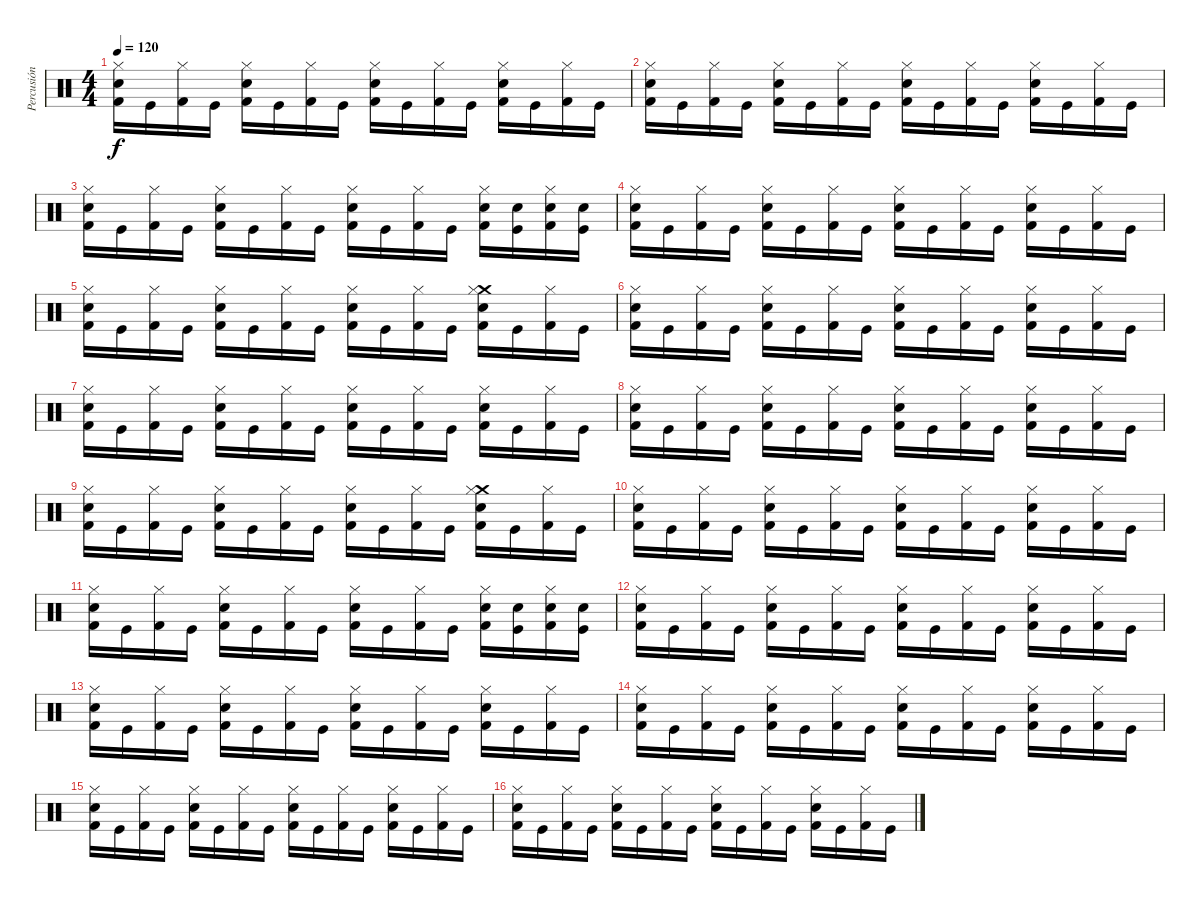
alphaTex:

\track ("Percusión" "Percusión") {instrument percussion}
\staff {score}
\articulation defaults
\ts (4 4)
\tempo 120
\clef neutral
\ks c
("Hi-Hat (closed)" "Snare (hit) 2" "Kick (hit) 2").16{dy f} "Kick (hit)".16 ("Hi-Hat (closed)" "Kick (hit) 2").16 "Kick (hit)".16 ("Hi-Hat (closed)" "Snare (hit) 2" "Kick (hit) 2").16 "Kick (hit)".16 ("Hi-Hat (closed)" "Kick (hit) 2").16 "Kick (hit)".16 ("Hi-Hat (closed)" "Snare (hit) 2" "Kick (hit) 2").16 "Kick (hit)".16 ("Hi-Hat (closed)" "Kick (hit) 2").16 "Kick (hit)".16 ("Hi-Hat (closed)" "Snare (hit) 2" "Kick (hit) 2").16 "Kick (hit)".16 ("Hi-Hat (closed)" "Kick (hit) 2").16 "Kick (hit)".16 |
("Hi-Hat (closed)" "Snare (hit) 2" "Kick (hit) 2").16 "Kick (hit)".16 ("Hi-Hat (closed)" "Kick (hit) 2").16 "Kick (hit)".16 ("Hi-Hat (closed)" "Snare (hit) 2" "Kick (hit) 2").16 "Kick (hit)".16 ("Hi-Hat (closed)" "Kick (hit) 2").16 "Kick (hit)".16 ("Hi-Hat (closed)" "Snare (hit) 2" "Kick (hit) 2").16 "Kick (hit)".16 ("Hi-Hat (closed)" "Kick (hit) 2").16 "Kick (hit)".16 ("Hi-Hat (closed)" "Snare (hit) 2" "Kick (hit) 2").16 "Kick (hit)".16 ("Hi-Hat (closed)" "Kick (hit) 2").16 "Kick (hit)".16 |
("Hi-Hat (closed)" "Snare (hit) 2" "Kick (hit) 2").16 "Kick (hit)".16 ("Hi-Hat (closed)" "Kick (hit) 2").16 "Kick (hit)".16 ("Hi-Hat (closed)" "Snare (hit) 2" "Kick (hit) 2").16 "Kick (hit)".16 ("Hi-Hat (closed)" "Kick (hit) 2").16 "Kick (hit)".16 ("Hi-Hat (closed)" "Snare (hit) 2" "Kick (hit) 2").16 "Kick (hit)".16 ("Hi-Hat (closed)" "Kick (hit) 2").16 "Kick (hit)".16 ("Hi-Hat (closed)" "Snare (hit) 2" "Kick (hit) 2").16 ("Snare (hit) 2" "Kick (hit)").16 ("Hi-Hat (closed)" "Snare (hit) 2" "Kick (hit) 2").16 ("Snare (hit) 2" "Kick (hit)").16 |
("Hi-Hat (closed)" "Snare (hit) 2" "Kick (hit) 2").16 "Kick (hit)".16 ("Hi-Hat (closed)" "Kick (hit) 2").16 "Kick (hit)".16 ("Hi-Hat (closed)" "Snare (hit) 2" "Kick (hit) 2").16 "Kick (hit)".16 ("Hi-Hat (closed)" "Kick (hit) 2").16 "Kick (hit)".16 ("Hi-Hat (closed)" "Snare (hit) 2" "Kick (hit) 2").16 "Kick (hit)".16 ("Hi-Hat (closed)" "Kick (hit) 2").16 "Kick (hit)".16 ("Hi-Hat (closed)" "Snare (hit) 2" "Kick (hit) 2").16 "Kick (hit)".16 ("Hi-Hat (closed)" "Kick (hit) 2").16 "Kick (hit)".16 |
("Hi-Hat (closed)" "Snare (hit) 2" "Kick (hit) 2").16 "Kick (hit)".16 ("Hi-Hat (closed)" "Kick (hit) 2").16 "Kick (hit)".16 ("Hi-Hat (closed)" "Snare (hit) 2" "Kick (hit) 2").16 "Kick (hit)".16 ("Hi-Hat (closed)" "Kick (hit) 2").16 "Kick (hit)".16 ("Hi-Hat (closed)" "Snare (hit) 2" "Kick (hit) 2").16 "Kick (hit)".16 ("Hi-Hat (closed)" "Kick (hit) 2").16 "Kick (hit)".16 ("Crash medium (hit)" "Hi-Hat (closed)" "Snare (hit) 2" "Kick (hit) 2").16 "Kick (hit)".16 ("Hi-Hat (closed)" "Kick (hit) 2").16 "Kick (hit)".16 |
("Hi-Hat (closed)" "Snare (hit) 2" "Kick (hit) 2").16 "Kick (hit)".16 ("Hi-Hat (closed)" "Kick (hit) 2").16 "Kick (hit)".16 ("Hi-Hat (closed)" "Snare (hit) 2" "Kick (hit) 2").16 "Kick (hit)".16 ("Hi-Hat (closed)" "Kick (hit) 2").16 "Kick (hit)".16 ("Hi-Hat (closed)" "Snare (hit) 2" "Kick (hit) 2").16 "Kick (hit)".16 ("Hi-Hat (closed)" "Kick (hit) 2").16 "Kick (hit)".16 ("Hi-Hat (closed)" "Snare (hit) 2" "Kick (hit) 2").16 "Kick (hit)".16 ("Hi-Hat (closed)" "Kick (hit) 2").16 "Kick (hit)".16 |
("Hi-Hat (closed)" "Snare (hit) 2" "Kick (hit) 2").16 "Kick (hit)".16 ("Hi-Hat (closed)" "Kick (hit) 2").16 "Kick (hit)".16 ("Hi-Hat (closed)" "Snare (hit) 2" "Kick (hit) 2").16 "Kick (hit)".16 ("Hi-Hat (closed)" "Kick (hit) 2").16 "Kick (hit)".16 ("Hi-Hat (closed)" "Snare (hit) 2" "Kick (hit) 2").16 "Kick (hit)".16 ("Hi-Hat (closed)" "Kick (hit) 2").16 "Kick (hit)".16 ("Hi-Hat (closed)" "Snare (hit) 2" "Kick (hit) 2").16 "Kick (hit)".16 ("Hi-Hat (closed)" "Kick (hit) 2").16 "Kick (hit)".16 |
("Hi-Hat (closed)" "Snare (hit) 2" "Kick (hit) 2").16 "Kick (hit)".16 ("Hi-Hat (closed)" "Kick (hit) 2").16 "Kick (hit)".16 ("Hi-Hat (closed)" "Snare (hit) 2" "Kick (hit) 2").16 "Kick (hit)".16 ("Hi-Hat (closed)" "Kick (hit) 2").16 "Kick (hit)".16 ("Hi-Hat (closed)" "Snare (hit) 2" "Kick (hit) 2").16 "Kick (hit)".16 ("Hi-Hat (closed)" "Kick (hit) 2").16 "Kick (hit)".16 ("Hi-Hat (closed)" "Snare (hit) 2" "Kick (hit) 2").16 "Kick (hit)".16 ("Hi-Hat (closed)" "Kick (hit) 2").16 "Kick (hit)".16 |
("Hi-Hat (closed)" "Snare (hit) 2" "Kick (hit) 2").16 "Kick (hit)".16 ("Hi-Hat (closed)" "Kick (hit) 2").16 "Kick (hit)".16 ("Hi-Hat (closed)" "Snare (hit) 2" "Kick (hit) 2").16 "Kick (hit)".16 ("Hi-Hat (closed)" "Kick (hit) 2").16 "Kick (hit)".16 ("Hi-Hat (closed)" "Snare (hit) 2" "Kick (hit) 2").16 "Kick (hit)".16 ("Hi-Hat (closed)" "Kick (hit) 2").16 "Kick (hit)".16 ("Crash medium (hit)" "Hi-Hat (closed)" "Snare (hit) 2" "Kick (hit) 2").16 "Kick (hit)".16 ("Hi-Hat (closed)" "Kick (hit) 2").16 "Kick (hit)".16 |
("Hi-Hat (closed)" "Snare (hit) 2" "Kick (hit) 2").16 "Kick (hit)".16 ("Hi-Hat (closed)" "Kick (hit) 2").16 "Kick (hit)".16 ("Hi-Hat (closed)" "Snare (hit) 2" "Kick (hit) 2").16 "Kick (hit)".16 ("Hi-Hat (closed)" "Kick (hit) 2").16 "Kick (hit)".16 ("Hi-Hat (closed)" "Snare (hit) 2" "Kick (hit) 2").16 "Kick (hit)".16 ("Hi-Hat (closed)" "Kick (hit) 2").16 "Kick (hit)".16 ("Hi-Hat (closed)" "Snare (hit) 2" "Kick (hit) 2").16 "Kick (hit)".16 ("Hi-Hat (closed)" "Kick (hit) 2").16 "Kick (hit)".16 |
("Hi-Hat (closed)" "Snare (hit) 2" "Kick (hit) 2").16 "Kick (hit)".16 ("Hi-Hat (closed)" "Kick (hit) 2").16 "Kick (hit)".16 ("Hi-Hat (closed)" "Snare (hit) 2" "Kick (hit) 2").16 "Kick (hit)".16 ("Hi-Hat (closed)" "Kick (hit) 2").16 "Kick (hit)".16 ("Hi-Hat (closed)" "Snare (hit) 2" "Kick (hit) 2").16 "Kick (hit)".16 ("Hi-Hat (closed)" "Kick (hit) 2").16 "Kick (hit)".16 ("Hi-Hat (closed)" "Snare (hit) 2" "Kick (hit) 2").16 ("Snare (hit) 2" "Kick (hit)").16 ("Hi-Hat (closed)" "Snare (hit) 2" "Kick (hit) 2").16 ("Snare (hit) 2" "Kick (hit)").16 |
("Hi-Hat (closed)" "Snare (hit) 2" "Kick (hit) 2").16 "Kick (hit)".16 ("Hi-Hat (closed)" "Kick (hit) 2").16 "Kick (hit)".16 ("Hi-Hat (closed)" "Snare (hit) 2" "Kick (hit) 2").16 "Kick (hit)".16 ("Hi-Hat (closed)" "Kick (hit) 2").16 "Kick (hit)".16 ("Hi-Hat (closed)" "Snare (hit) 2" "Kick (hit) 2").16 "Kick (hit)".16 ("Hi-Hat (closed)" "Kick (hit) 2").16 "Kick (hit)".16 ("Hi-Hat (closed)" "Snare (hit) 2" "Kick (hit) 2").16 "Kick (hit)".16 ("Hi-Hat (closed)" "Kick (hit) 2").16 "Kick (hit)".16 |
("Hi-Hat (closed)" "Snare (hit) 2" "Kick (hit) 2").16 "Kick (hit)".16 ("Hi-Hat (closed)" "Kick (hit) 2").16 "Kick (hit)".16 ("Hi-Hat (closed)" "Snare (hit) 2" "Kick (hit) 2").16 "Kick (hit)".16 ("Hi-Hat (closed)" "Kick (hit) 2").16 "Kick (hit)".16 ("Hi-Hat (closed)" "Snare (hit) 2" "Kick (hit) 2").16 "Kick (hit)".16 ("Hi-Hat (closed)" "Kick (hit) 2").16 "Kick (hit)".16 ("Hi-Hat (closed)" "Snare (hit) 2" "Kick (hit) 2").16 "Kick (hit)".16 ("Hi-Hat (closed)" "Kick (hit) 2").16 "Kick (hit)".16 |
("Hi-Hat (closed)" "Snare (hit) 2" "Kick (hit) 2").16 "Kick (hit)".16 ("Hi-Hat (closed)" "Kick (hit) 2").16 "Kick (hit)".16 ("Hi-Hat (closed)" "Snare (hit) 2" "Kick (hit) 2").16 "Kick (hit)".16 ("Hi-Hat (closed)" "Kick (hit) 2").16 "Kick (hit)".16 ("Hi-Hat (closed)" "Snare (hit) 2" "Kick (hit) 2").16 "Kick (hit)".16 ("Hi-Hat (closed)" "Kick (hit) 2").16 "Kick (hit)".16 ("Hi-Hat (closed)" "Snare (hit) 2" "Kick (hit) 2").16 "Kick (hit)".16 ("Hi-Hat (closed)" "Kick (hit) 2").16 "Kick (hit)".16 |
("Hi-Hat (closed)" "Snare (hit) 2" "Kick (hit) 2").16 "Kick (hit)".16 ("Hi-Hat (closed)" "Kick (hit) 2").16 "Kick (hit)".16 ("Hi-Hat (closed)" "Snare (hit) 2" "Kick (hit) 2").16 "Kick (hit)".16 ("Hi-Hat (closed)" "Kick (hit) 2").16 "Kick (hit)".16 ("Hi-Hat (closed)" "Snare (hit) 2" "Kick (hit) 2").16 "Kick (hit)".16 ("Hi-Hat (closed)" "Kick (hit) 2").16 "Kick (hit)".16 ("Hi-Hat (closed)" "Snare (hit) 2" "Kick (hit) 2").16 "Kick (hit)".16 ("Hi-Hat (closed)" "Kick (hit) 2").16 "Kick (hit)".16 |
("Hi-Hat (closed)" "Snare (hit) 2" "Kick (hit) 2").16 "Kick (hit)".16 ("Hi-Hat (closed)" "Kick (hit) 2").16 "Kick (hit)".16 ("Hi-Hat (closed)" "Snare (hit) 2" "Kick (hit) 2").16 "Kick (hit)".16 ("Hi-Hat (closed)" "Kick (hit) 2").16 "Kick (hit)".16 ("Hi-Hat (closed)" "Snare (hit) 2" "Kick (hit) 2").16 "Kick (hit)".16 ("Hi-Hat (closed)" "Kick (hit) 2").16 "Kick (hit)".16 ("Hi-Hat (closed)" "Snare (hit) 2" "Kick (hit) 2").16 "Kick (hit)".16 ("Hi-Hat (closed)" "Kick (hit) 2").16 "Kick (hit)".16
